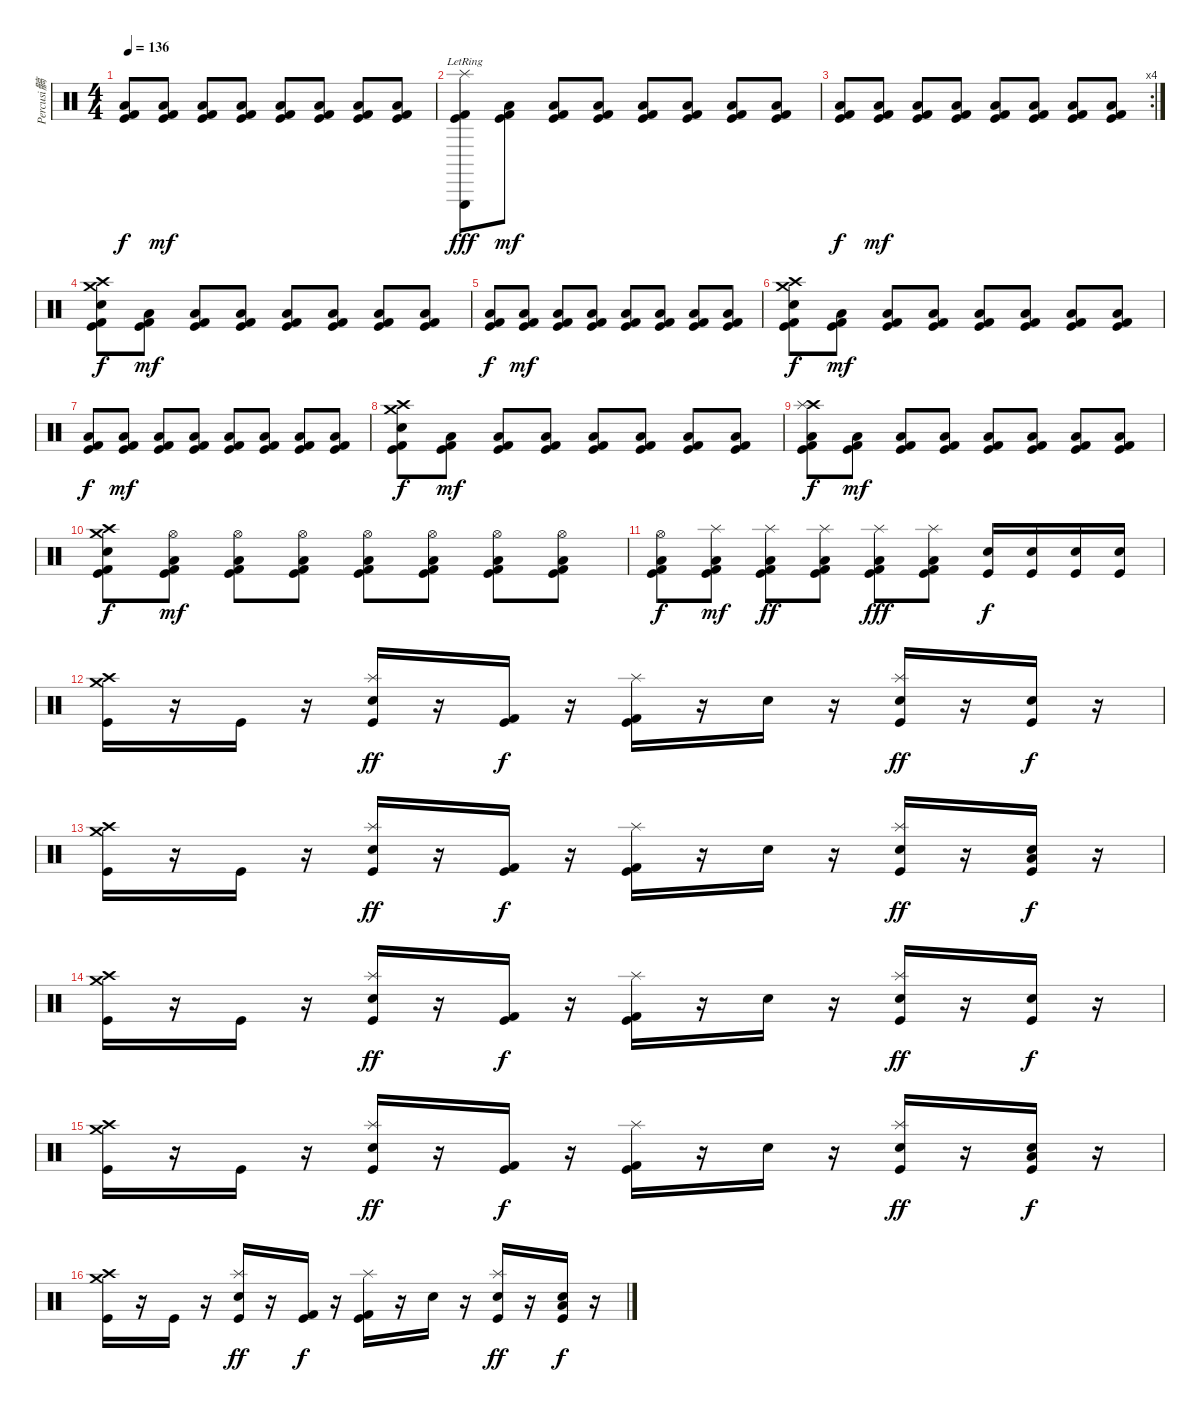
\track ("Percusi髇" "Percusi髇") {instrument percussion}
\staff {score}
\articulation defaults
\ts (4 4)
\tempo 136
\clef neutral
\ks c
("Low Floor Tom (hit)" "Kick (hit) 2" "Kick (hit)").8{dy f} ("Low Floor Tom (hit)" "Kick (hit) 2" "Kick (hit)").8{dy mf} ("Low Floor Tom (hit)" "Kick (hit) 2" "Kick (hit)").8 ("Low Floor Tom (hit)" "Kick (hit) 2" "Kick (hit)").8 ("Low Floor Tom (hit)" "Kick (hit) 2" "Kick (hit)").8 ("Low Floor Tom (hit)" "Kick (hit) 2" "Kick (hit)").8 ("Low Floor Tom (hit)" "Kick (hit) 2" "Kick (hit)").8 ("Low Floor Tom (hit)" "Kick (hit) 2" "Kick (hit)").8 |
("Triangle (hit)"{lr} "Splash (hit)" "Kick (hit) 2" "Kick (hit)").8{dy fff} ("Low Floor Tom (hit)" "Kick (hit) 2" "Kick (hit)").8{dy mf} ("Low Floor Tom (hit)" "Kick (hit) 2" "Kick (hit)").8 ("Low Floor Tom (hit)" "Kick (hit) 2" "Kick (hit)").8 ("Low Floor Tom (hit)" "Kick (hit) 2" "Kick (hit)").8 ("Low Floor Tom (hit)" "Kick (hit) 2" "Kick (hit)").8 ("Low Floor Tom (hit)" "Kick (hit) 2" "Kick (hit)").8 ("Low Floor Tom (hit)" "Kick (hit) 2" "Kick (hit)").8 |
\rc 4
("Low Floor Tom (hit)" "Kick (hit) 2" "Kick (hit)").8{dy f} ("Low Floor Tom (hit)" "Kick (hit) 2" "Kick (hit)").8{dy mf} ("Low Floor Tom (hit)" "Kick (hit) 2" "Kick (hit)").8 ("Low Floor Tom (hit)" "Kick (hit) 2" "Kick (hit)").8 ("Low Floor Tom (hit)" "Kick (hit) 2" "Kick (hit)").8 ("Low Floor Tom (hit)" "Kick (hit) 2" "Kick (hit)").8 ("Low Floor Tom (hit)" "Kick (hit) 2" "Kick (hit)").8 ("Low Floor Tom (hit)" "Kick (hit) 2" "Kick (hit)").8 |
("Electric Snare (hit)" "Crash high (hit)" "Crash medium (hit)" "Kick (hit) 2" "Kick (hit)").8{dy f} ("Low Floor Tom (hit)" "Kick (hit) 2" "Kick (hit)").8{dy mf} ("Low Floor Tom (hit)" "Kick (hit) 2" "Kick (hit)").8 ("Low Floor Tom (hit)" "Kick (hit) 2" "Kick (hit)").8 ("Low Floor Tom (hit)" "Kick (hit) 2" "Kick (hit)").8 ("Low Floor Tom (hit)" "Kick (hit) 2" "Kick (hit)").8 ("Low Floor Tom (hit)" "Kick (hit) 2" "Kick (hit)").8 ("Low Floor Tom (hit)" "Kick (hit) 2" "Kick (hit)").8 |
("Low Floor Tom (hit)" "Kick (hit) 2" "Kick (hit)").8{dy f} ("Low Floor Tom (hit)" "Kick (hit) 2" "Kick (hit)").8{dy mf} ("Low Floor Tom (hit)" "Kick (hit) 2" "Kick (hit)").8 ("Low Floor Tom (hit)" "Kick (hit) 2" "Kick (hit)").8 ("Low Floor Tom (hit)" "Kick (hit) 2" "Kick (hit)").8 ("Low Floor Tom (hit)" "Kick (hit) 2" "Kick (hit)").8 ("Low Floor Tom (hit)" "Kick (hit) 2" "Kick (hit)").8 ("Low Floor Tom (hit)" "Kick (hit) 2" "Kick (hit)").8 |
("Electric Snare (hit)" "Crash high (hit)" "Crash medium (hit)" "Kick (hit) 2" "Kick (hit)").8{dy f} ("Low Floor Tom (hit)" "Kick (hit) 2" "Kick (hit)").8{dy mf} ("Low Floor Tom (hit)" "Kick (hit) 2" "Kick (hit)").8 ("Low Floor Tom (hit)" "Kick (hit) 2" "Kick (hit)").8 ("Low Floor Tom (hit)" "Kick (hit) 2" "Kick (hit)").8 ("Low Floor Tom (hit)" "Kick (hit) 2" "Kick (hit)").8 ("Low Floor Tom (hit)" "Kick (hit) 2" "Kick (hit)").8 ("Low Floor Tom (hit)" "Kick (hit) 2" "Kick (hit)").8 |
("Low Floor Tom (hit)" "Kick (hit) 2" "Kick (hit)").8{dy f} ("Low Floor Tom (hit)" "Kick (hit) 2" "Kick (hit)").8{dy mf} ("Low Floor Tom (hit)" "Kick (hit) 2" "Kick (hit)").8 ("Low Floor Tom (hit)" "Kick (hit) 2" "Kick (hit)").8 ("Low Floor Tom (hit)" "Kick (hit) 2" "Kick (hit)").8 ("Low Floor Tom (hit)" "Kick (hit) 2" "Kick (hit)").8 ("Low Floor Tom (hit)" "Kick (hit) 2" "Kick (hit)").8 ("Low Floor Tom (hit)" "Kick (hit) 2" "Kick (hit)").8 |
("Electric Snare (hit)" "Crash high (hit)" "Crash medium (hit)" "Kick (hit) 2" "Kick (hit)").8{dy f} ("Low Floor Tom (hit)" "Kick (hit) 2" "Kick (hit)").8{dy mf} ("Low Floor Tom (hit)" "Kick (hit) 2" "Kick (hit)").8 ("Low Floor Tom (hit)" "Kick (hit) 2" "Kick (hit)").8 ("Low Floor Tom (hit)" "Kick (hit) 2" "Kick (hit)").8 ("Low Floor Tom (hit)" "Kick (hit) 2" "Kick (hit)").8 ("Low Floor Tom (hit)" "Kick (hit) 2" "Kick (hit)").8 ("Low Floor Tom (hit)" "Kick (hit) 2" "Kick (hit)").8 |
("Crash high (hit)" "Splash (hit)" "Low Floor Tom (hit)" "Kick (hit) 2" "Kick (hit)").8{dy f} ("Low Floor Tom (hit)" "Kick (hit) 2" "Kick (hit)").8{dy mf} ("Low Floor Tom (hit)" "Kick (hit) 2" "Kick (hit)").8 ("Low Floor Tom (hit)" "Kick (hit) 2" "Kick (hit)").8 ("Low Floor Tom (hit)" "Kick (hit) 2" "Kick (hit)").8 ("Low Floor Tom (hit)" "Kick (hit) 2" "Kick (hit)").8 ("Low Floor Tom (hit)" "Kick (hit) 2" "Kick (hit)").8 ("Low Floor Tom (hit)" "Kick (hit) 2" "Kick (hit)").8 |
("Electric Snare (hit)" "Crash high (hit)" "Crash medium (hit)" "Kick (hit) 2" "Kick (hit)").8{dy f} ("Hi-Hat (open)" "Low Floor Tom (hit)" "Kick (hit) 2" "Kick (hit)").8{dy mf} ("Hi-Hat (open)" "Low Floor Tom (hit)" "Kick (hit) 2" "Kick (hit)").8 ("Hi-Hat (open)" "Low Floor Tom (hit)" "Kick (hit) 2" "Kick (hit)").8 ("Hi-Hat (open)" "Low Floor Tom (hit)" "Kick (hit) 2" "Kick (hit)").8 ("Hi-Hat (open)" "Low Floor Tom (hit)" "Kick (hit) 2" "Kick (hit)").8 ("Hi-Hat (open)" "Low Floor Tom (hit)" "Kick (hit) 2" "Kick (hit)").8 ("Hi-Hat (open)" "Low Floor Tom (hit)" "Kick (hit) 2" "Kick (hit)").8 |
("Hi-Hat (open)" "Low Floor Tom (hit)" "Kick (hit) 2" "Kick (hit)").8{dy f} ("Splash (hit)" "Low Floor Tom (hit)" "Kick (hit) 2" "Kick (hit)").8{dy mf} ("Splash (hit)" "Low Floor Tom (hit)" "Kick (hit) 2" "Kick (hit)").8{dy ff} ("Splash (hit)" "Low Floor Tom (hit)" "Kick (hit) 2" "Kick (hit)").8 ("Splash (hit)" "Low Floor Tom (hit)" "Kick (hit) 2" "Kick (hit)").8{dy fff} ("Splash (hit)" "Low Floor Tom (hit)" "Kick (hit) 2" "Kick (hit)").8 ("Electric Snare (hit)" "Kick (hit)").16{dy f} ("Electric Snare (hit)" "Kick (hit)").16 ("Electric Snare (hit)" "Kick (hit)").16 ("Electric Snare (hit)" "Kick (hit)").16 |
("Crash medium (hit)" "Crash high (hit)" "Kick (hit)").16 r.16 "Kick (hit)".16 r.16 ("Splash (hit)" "Electric Snare (hit)" "Kick (hit)").16{dy ff} r.16 ("Kick (hit) 2" "Kick (hit)").16{dy f} r.16 ("Splash (hit)" "Kick (hit) 2" "Kick (hit)").16 r.16 "Electric Snare (hit)".16 r.16 ("Splash (hit)" "Electric Snare (hit)" "Kick (hit)").16{dy ff} r.16 ("Electric Snare (hit)" "Kick (hit)").16{dy f} r.16 |
("Crash medium (hit)" "Crash high (hit)" "Kick (hit)").16 r.16 "Kick (hit)".16 r.16 ("Splash (hit)" "Electric Snare (hit)" "Kick (hit)").16{dy ff} r.16 ("Kick (hit) 2" "Kick (hit)").16{dy f} r.16 ("Splash (hit)" "Kick (hit) 2" "Kick (hit)").16 r.16 "Electric Snare (hit)".16 r.16 ("Splash (hit)" "Electric Snare (hit)" "Kick (hit)").16{dy ff} r.16 ("Low Tom (hit)" "Electric Snare (hit)" "Kick (hit)").16{dy f} r.16 |
("Crash medium (hit)" "Crash high (hit)" "Kick (hit)").16 r.16 "Kick (hit)".16 r.16 ("Splash (hit)" "Electric Snare (hit)" "Kick (hit)").16{dy ff} r.16 ("Kick (hit) 2" "Kick (hit)").16{dy f} r.16 ("Splash (hit)" "Kick (hit) 2" "Kick (hit)").16 r.16 "Electric Snare (hit)".16 r.16 ("Splash (hit)" "Electric Snare (hit)" "Kick (hit)").16{dy ff} r.16 ("Electric Snare (hit)" "Kick (hit)").16{dy f} r.16 |
("Crash medium (hit)" "Crash high (hit)" "Kick (hit)").16 r.16 "Kick (hit)".16 r.16 ("Splash (hit)" "Electric Snare (hit)" "Kick (hit)").16{dy ff} r.16 ("Kick (hit) 2" "Kick (hit)").16{dy f} r.16 ("Splash (hit)" "Kick (hit) 2" "Kick (hit)").16 r.16 "Electric Snare (hit)".16 r.16 ("Splash (hit)" "Electric Snare (hit)" "Kick (hit)").16{dy ff} r.16 ("Low Tom (hit)" "Electric Snare (hit)" "Kick (hit)").16{dy f} r.16 |
("Crash medium (hit)" "Crash high (hit)" "Kick (hit)").16 r.16 "Kick (hit)".16 r.16 ("Splash (hit)" "Electric Snare (hit)" "Kick (hit)").16{dy ff} r.16 ("Kick (hit) 2" "Kick (hit)").16{dy f} r.16 ("Splash (hit)" "Kick (hit) 2" "Kick (hit)").16 r.16 "Electric Snare (hit)".16 r.16 ("Splash (hit)" "Electric Snare (hit)" "Kick (hit)").16{dy ff} r.16 ("Low Tom (hit)" "Electric Snare (hit)" "Kick (hit)").16{dy f} r.16
